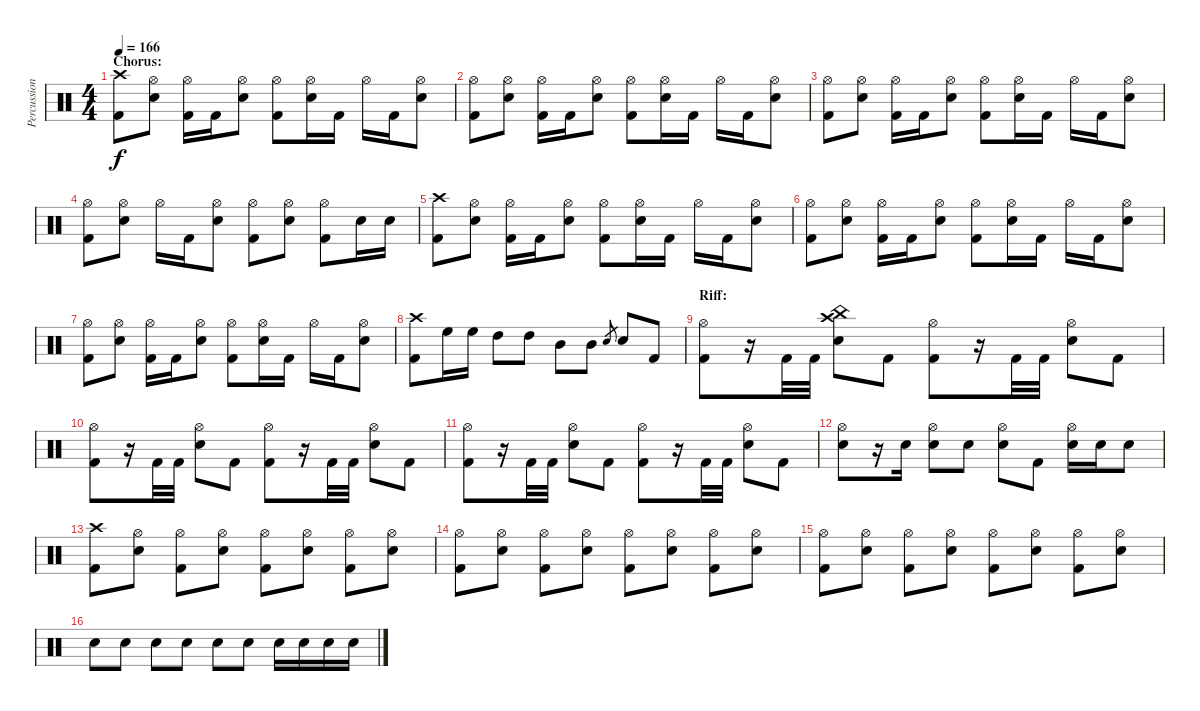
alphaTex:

\track ("Percussion" "Percussion") {instrument percussion}
\staff {score}
\articulation defaults
\ts (4 4)
\section ("" "Chorus:")
\tempo 166
\clef neutral
\ks c
("Crash high (hit)" "Kick (hit) 2").8{dy f} ("Hi-Hat (open)" "Electric Snare (hit)").8 ("Hi-Hat (open)" "Kick (hit) 2").16 "Kick (hit) 2".16 ("Hi-Hat (open)" "Electric Snare (hit)").8 ("Hi-Hat (open)" "Kick (hit) 2").8 ("Hi-Hat (open)" "Electric Snare (hit)").16 "Kick (hit) 2".16 "Hi-Hat (open)".16 "Kick (hit) 2".16 ("Hi-Hat (open)" "Electric Snare (hit)").8 |
("Hi-Hat (open)" "Kick (hit) 2").8 ("Hi-Hat (open)" "Electric Snare (hit)").8 ("Hi-Hat (open)" "Kick (hit) 2").16 "Kick (hit) 2".16 ("Hi-Hat (open)" "Electric Snare (hit)").8 ("Hi-Hat (open)" "Kick (hit) 2").8 ("Hi-Hat (open)" "Electric Snare (hit)").16 "Kick (hit) 2".16 "Hi-Hat (open)".16 "Kick (hit) 2".16 ("Hi-Hat (open)" "Electric Snare (hit)").8 |
("Hi-Hat (open)" "Kick (hit) 2").8 ("Hi-Hat (open)" "Electric Snare (hit)").8 ("Hi-Hat (open)" "Kick (hit) 2").16 "Kick (hit) 2".16 ("Hi-Hat (open)" "Electric Snare (hit)").8 ("Hi-Hat (open)" "Kick (hit) 2").8 ("Hi-Hat (open)" "Electric Snare (hit)").16 "Kick (hit) 2".16 "Hi-Hat (open)".16 "Kick (hit) 2".16 ("Hi-Hat (open)" "Electric Snare (hit)").8 |
("Hi-Hat (open)" "Kick (hit) 2").8 ("Hi-Hat (open)" "Electric Snare (hit)").8 "Hi-Hat (open)".16 "Kick (hit) 2".16 ("Hi-Hat (open)" "Electric Snare (hit)").8 ("Hi-Hat (open)" "Kick (hit) 2").8 ("Hi-Hat (open)" "Electric Snare (hit)").8 ("Hi-Hat (open)" "Kick (hit) 2").8 "Electric Snare (hit)".16 "Electric Snare (hit)".16 |
("Crash high (hit)" "Kick (hit) 2").8 ("Hi-Hat (open)" "Electric Snare (hit)").8 ("Hi-Hat (open)" "Kick (hit) 2").16 "Kick (hit) 2".16 ("Hi-Hat (open)" "Electric Snare (hit)").8 ("Hi-Hat (open)" "Kick (hit) 2").8 ("Hi-Hat (open)" "Electric Snare (hit)").16 "Kick (hit) 2".16 "Hi-Hat (open)".16 "Kick (hit) 2".16 ("Hi-Hat (open)" "Electric Snare (hit)").8 |
("Hi-Hat (open)" "Kick (hit) 2").8 ("Hi-Hat (open)" "Electric Snare (hit)").8 ("Hi-Hat (open)" "Kick (hit) 2").16 "Kick (hit) 2".16 ("Hi-Hat (open)" "Electric Snare (hit)").8 ("Hi-Hat (open)" "Kick (hit) 2").8 ("Hi-Hat (open)" "Electric Snare (hit)").16 "Kick (hit) 2".16 "Hi-Hat (open)".16 "Kick (hit) 2".16 ("Hi-Hat (open)" "Electric Snare (hit)").8 |
("Hi-Hat (open)" "Kick (hit) 2").8 ("Hi-Hat (open)" "Electric Snare (hit)").8 ("Hi-Hat (open)" "Kick (hit) 2").16 "Kick (hit) 2".16 ("Hi-Hat (open)" "Electric Snare (hit)").8 ("Hi-Hat (open)" "Kick (hit) 2").8 ("Hi-Hat (open)" "Electric Snare (hit)").16 "Kick (hit) 2".16 "Hi-Hat (open)".16 "Kick (hit) 2".16 ("Hi-Hat (open)" "Electric Snare (hit)").8 |
("Crash high (hit)" "Kick (hit) 2").8 "High Floor Tom (hit)".16 "High Floor Tom (hit)".16 "High Tom (hit)".8 "High Tom (hit)".8 "Mid Tom (hit)".8 "Mid Tom (hit)".8 "Electric Snare (hit)".8{gr} "Electric Snare (hit)".8 "Kick (hit) 2".8 |
\section ("" "Riff:")
("Hi-Hat (open)" "Kick (hit) 2").8 r.16 "Kick (hit) 2".32 "Kick (hit) 2".32 ("China (hit)" "Crash high (hit)" "Electric Snare (hit)").8 "Kick (hit) 2".8 ("Hi-Hat (open)" "Kick (hit) 2").8 r.16 "Kick (hit) 2".32 "Kick (hit) 2".32 ("Hi-Hat (open)" "Electric Snare (hit)").8 "Kick (hit) 2".8 |
("Hi-Hat (open)" "Kick (hit) 2").8 r.16 "Kick (hit) 2".32 "Kick (hit) 2".32 ("Hi-Hat (open)" "Electric Snare (hit)").8 "Kick (hit) 2".8 ("Hi-Hat (open)" "Kick (hit) 2").8 r.16 "Kick (hit) 2".32 "Kick (hit) 2".32 ("Hi-Hat (open)" "Electric Snare (hit)").8 "Kick (hit) 2".8 |
("Hi-Hat (open)" "Kick (hit) 2").8 r.16 "Kick (hit) 2".32 "Kick (hit) 2".32 ("Hi-Hat (open)" "Electric Snare (hit)").8 "Kick (hit) 2".8 ("Hi-Hat (open)" "Kick (hit) 2").8 r.16 "Kick (hit) 2".32 "Kick (hit) 2".32 ("Hi-Hat (open)" "Electric Snare (hit)").8 "Kick (hit) 2".8 |
("Hi-Hat (open)" "Electric Snare (hit)").8 r.16 "Electric Snare (hit)".16 ("Hi-Hat (open)" "Electric Snare (hit)").8 "Electric Snare (hit)".8 ("Hi-Hat (open)" "Electric Snare (hit)").8 "Kick (hit) 2".8 ("Hi-Hat (open)" "Electric Snare (hit)").16 "Electric Snare (hit)".16 "Electric Snare (hit)".8 |
("Crash high (hit)" "Kick (hit) 2").8 ("Hi-Hat (open)" "Electric Snare (hit)").8 ("Hi-Hat (open)" "Kick (hit) 2").8 ("Hi-Hat (open)" "Electric Snare (hit)").8 ("Hi-Hat (open)" "Kick (hit) 2").8 ("Hi-Hat (open)" "Electric Snare (hit)").8 ("Hi-Hat (open)" "Kick (hit) 2").8 ("Hi-Hat (open)" "Electric Snare (hit)").8 |
("Hi-Hat (open)" "Kick (hit) 2").8 ("Hi-Hat (open)" "Electric Snare (hit)").8 ("Hi-Hat (open)" "Kick (hit) 2").8 ("Hi-Hat (open)" "Electric Snare (hit)").8 ("Hi-Hat (open)" "Kick (hit) 2").8 ("Hi-Hat (open)" "Electric Snare (hit)").8 ("Hi-Hat (open)" "Kick (hit) 2").8 ("Hi-Hat (open)" "Electric Snare (hit)").8 |
("Hi-Hat (open)" "Kick (hit) 2").8 ("Hi-Hat (open)" "Electric Snare (hit)").8 ("Hi-Hat (open)" "Kick (hit) 2").8 ("Hi-Hat (open)" "Electric Snare (hit)").8 ("Hi-Hat (open)" "Kick (hit) 2").8 ("Hi-Hat (open)" "Electric Snare (hit)").8 ("Hi-Hat (open)" "Kick (hit) 2").8 ("Hi-Hat (open)" "Electric Snare (hit)").8 |
"Electric Snare (hit)".8 "Electric Snare (hit)".8 "Electric Snare (hit)".8 "Electric Snare (hit)".8 "Electric Snare (hit)".8 "Electric Snare (hit)".8 "Electric Snare (hit)".16 "Electric Snare (hit)".16 "Electric Snare (hit)".16 "Electric Snare (hit)".16
